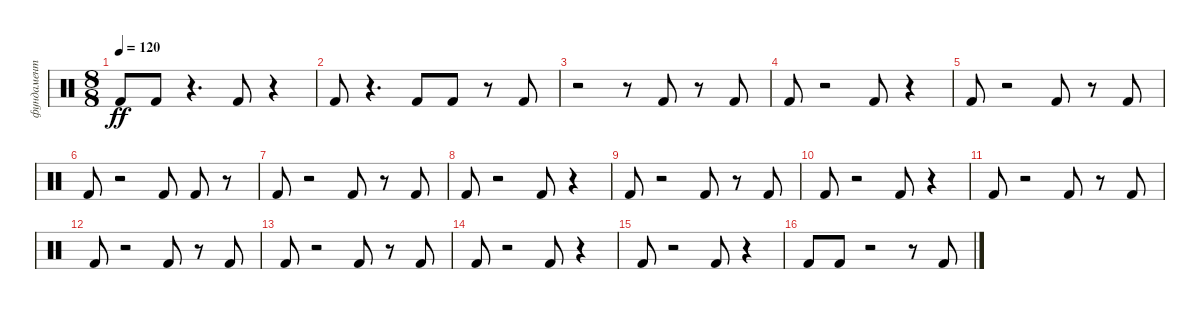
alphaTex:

\track ("фундамент" "фундамент") {instrument percussion}
\staff {score}
\articulation defaults
\ts (8 8)
\tempo 120
\clef neutral
\ks c "Kick (hit) 2".8{dy ff} "Kick (hit) 2".8
r.4{d} "Kick (hit) 2".8 r.4 |
"Kick (hit) 2".8 r.4{d} "Kick (hit) 2".8 "Kick (hit) 2".8 r.8 "Kick (hit) 2".8 |
r.2 r.8 "Kick (hit) 2".8 r.8 "Kick (hit) 2".8 |
"Kick (hit) 2".8 r.2 "Kick (hit) 2".8 r.4 |
"Kick (hit) 2".8 r.2 "Kick (hit) 2".8 r.8 "Kick (hit) 2".8 |
"Kick (hit) 2".8 r.2 "Kick (hit) 2".8 "Kick (hit) 2".8 r.8 |
"Kick (hit) 2".8 r.2 "Kick (hit) 2".8 r.8 "Kick (hit) 2".8 |
"Kick (hit) 2".8 r.2 "Kick (hit) 2".8 r.4 |
"Kick (hit) 2".8 r.2 "Kick (hit) 2".8 r.8 "Kick (hit) 2".8 |
"Kick (hit) 2".8 r.2 "Kick (hit) 2".8 r.4 |
"Kick (hit) 2".8 r.2 "Kick (hit) 2".8 r.8 "Kick (hit) 2".8 |
"Kick (hit) 2".8 r.2 "Kick (hit) 2".8 r.8 "Kick (hit) 2".8 |
"Kick (hit) 2".8 r.2 "Kick (hit) 2".8 r.8 "Kick (hit) 2".8 |
"Kick (hit) 2".8 r.2 "Kick (hit) 2".8 r.4 |
"Kick (hit) 2".8 r.2 "Kick (hit) 2".8 r.4 |
"Kick (hit) 2".8 "Kick (hit) 2".8 r.2 r.8 "Kick (hit) 2".8
